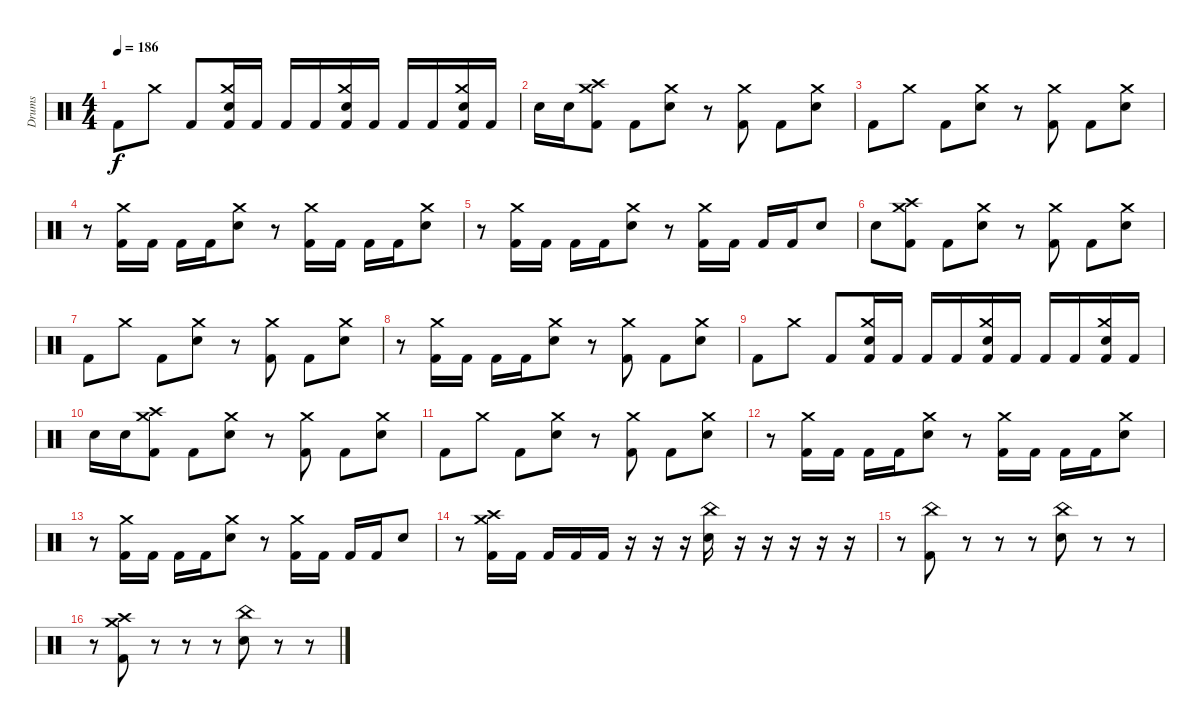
\track ("Drums" "Drums") {instrument percussion bank 177}
\staff {score}
\articulation defaults
\ts (4 4)
\tempo 186
\clef neutral
\ks c "Kick (hit) 2".8{dy f} "Crash medium (hit)".8 "Kick (hit) 2".8
("Crash medium (hit)" "Snare (hit) 2" "Kick (hit) 2").16 "Kick (hit) 2".16 "Kick (hit) 2".16 "Kick (hit) 2".16 ("Crash medium (hit)" "Snare (hit) 2" "Kick (hit) 2").16 "Kick (hit) 2".16 "Kick (hit) 2".16 "Kick (hit) 2".16 ("Crash medium (hit)" "Snare (hit) 2" "Kick (hit) 2").16 "Kick (hit) 2".16 |
"Snare (hit) 2".16 "Snare (hit) 2".16 ("Crash medium (hit)" "Crash high (hit)" "Kick (hit) 2").8 "Kick (hit) 2".8 ("Crash medium (hit)" "Snare (hit) 2").8 r.8 ("Crash medium (hit)" "Kick (hit) 2").8 "Kick (hit) 2".8 ("Crash medium (hit)" "Snare (hit) 2").8 |
"Kick (hit) 2".8 "Crash medium (hit)".8 "Kick (hit) 2".8 ("Crash medium (hit)" "Snare (hit) 2").8 r.8 ("Crash medium (hit)" "Kick (hit) 2").8 "Kick (hit) 2".8 ("Crash medium (hit)" "Snare (hit) 2").8 |
r.8 ("Crash medium (hit)" "Kick (hit) 2").16 "Kick (hit) 2".16 "Kick (hit) 2".16 "Kick (hit) 2".16 ("Crash medium (hit)" "Snare (hit) 2").8 r.8 ("Crash medium (hit)" "Kick (hit) 2").16 "Kick (hit) 2".16 "Kick (hit) 2".16 "Kick (hit) 2".16 ("Crash medium (hit)" "Snare (hit) 2").8 |
r.8 ("Crash medium (hit)" "Kick (hit) 2").16 "Kick (hit) 2".16 "Kick (hit) 2".16 "Kick (hit) 2".16 ("Crash medium (hit)" "Snare (hit) 2").8 r.8 ("Crash medium (hit)" "Kick (hit) 2").16 "Kick (hit) 2".16 "Kick (hit) 2".16 "Kick (hit) 2".16 "Snare (hit) 2".8 |
"Snare (hit) 2".8 ("Crash medium (hit)" "Crash high (hit)" "Kick (hit) 2").8 "Kick (hit) 2".8 ("Crash medium (hit)" "Snare (hit) 2").8 r.8 ("Crash medium (hit)" "Kick (hit) 2").8 "Kick (hit) 2".8 ("Crash medium (hit)" "Snare (hit) 2").8 |
"Kick (hit) 2".8 "Crash medium (hit)".8 "Kick (hit) 2".8 ("Crash medium (hit)" "Snare (hit) 2").8 r.8 ("Crash medium (hit)" "Kick (hit) 2").8 "Kick (hit) 2".8 ("Crash medium (hit)" "Snare (hit) 2").8 |
r.8 ("Crash medium (hit)" "Kick (hit) 2").16 "Kick (hit) 2".16 "Kick (hit) 2".16 "Kick (hit) 2".16 ("Crash medium (hit)" "Snare (hit) 2").8 r.8 ("Crash medium (hit)" "Kick (hit) 2").8 "Kick (hit) 2".8 ("Crash medium (hit)" "Snare (hit) 2").8 |
"Kick (hit) 2".8 "Crash medium (hit)".8 "Kick (hit) 2".8 ("Crash medium (hit)" "Snare (hit) 2" "Kick (hit) 2").16 "Kick (hit) 2".16 "Kick (hit) 2".16 "Kick (hit) 2".16 ("Crash medium (hit)" "Snare (hit) 2" "Kick (hit) 2").16 "Kick (hit) 2".16 "Kick (hit) 2".16 "Kick (hit) 2".16 ("Crash medium (hit)" "Snare (hit) 2" "Kick (hit) 2").16 "Kick (hit) 2".16 |
"Snare (hit) 2".16 "Snare (hit) 2".16 ("Crash medium (hit)" "Crash high (hit)" "Kick (hit) 2").8 "Kick (hit) 2".8 ("Crash medium (hit)" "Snare (hit) 2").8 r.8 ("Crash medium (hit)" "Kick (hit) 2").8 "Kick (hit) 2".8 ("Crash medium (hit)" "Snare (hit) 2").8 |
"Kick (hit) 2".8 "Crash medium (hit)".8 "Kick (hit) 2".8 ("Crash medium (hit)" "Snare (hit) 2").8 r.8 ("Crash medium (hit)" "Kick (hit) 2").8 "Kick (hit) 2".8 ("Crash medium (hit)" "Snare (hit) 2").8 |
r.8 ("Crash medium (hit)" "Kick (hit) 2").16 "Kick (hit) 2".16 "Kick (hit) 2".16 "Kick (hit) 2".16 ("Crash medium (hit)" "Snare (hit) 2").8 r.8 ("Crash medium (hit)" "Kick (hit) 2").16 "Kick (hit) 2".16 "Kick (hit) 2".16 "Kick (hit) 2".16 ("Crash medium (hit)" "Snare (hit) 2").8 |
r.8 ("Crash medium (hit)" "Kick (hit) 2").16 "Kick (hit) 2".16 "Kick (hit) 2".16 "Kick (hit) 2".16 ("Crash medium (hit)" "Snare (hit) 2").8 r.8 ("Crash medium (hit)" "Kick (hit) 2").16 "Kick (hit) 2".16 "Kick (hit) 2".16 "Kick (hit) 2".16 "Snare (hit) 2".8 |
r.8 ("Crash high (hit)" "Crash medium (hit)" "Kick (hit) 2").16 "Kick (hit) 2".16 "Kick (hit) 2".16 "Kick (hit) 2".16 "Kick (hit) 2".16 r.16 r.16 r.16 ("China (hit)" "Snare (hit) 2").16 r.16 r.16 r.16 r.16 r.16 |
r.8 ("China (hit)" "Kick (hit) 2").8 r.8 r.8 r.8 ("China (hit)" "Snare (hit) 2").8 r.8 r.8 |
r.8 ("Crash high (hit)" "Crash medium (hit)" "Kick (hit) 2").8 r.8 r.8 r.8 ("China (hit)" "Snare (hit) 2").8 r.8 r.8
